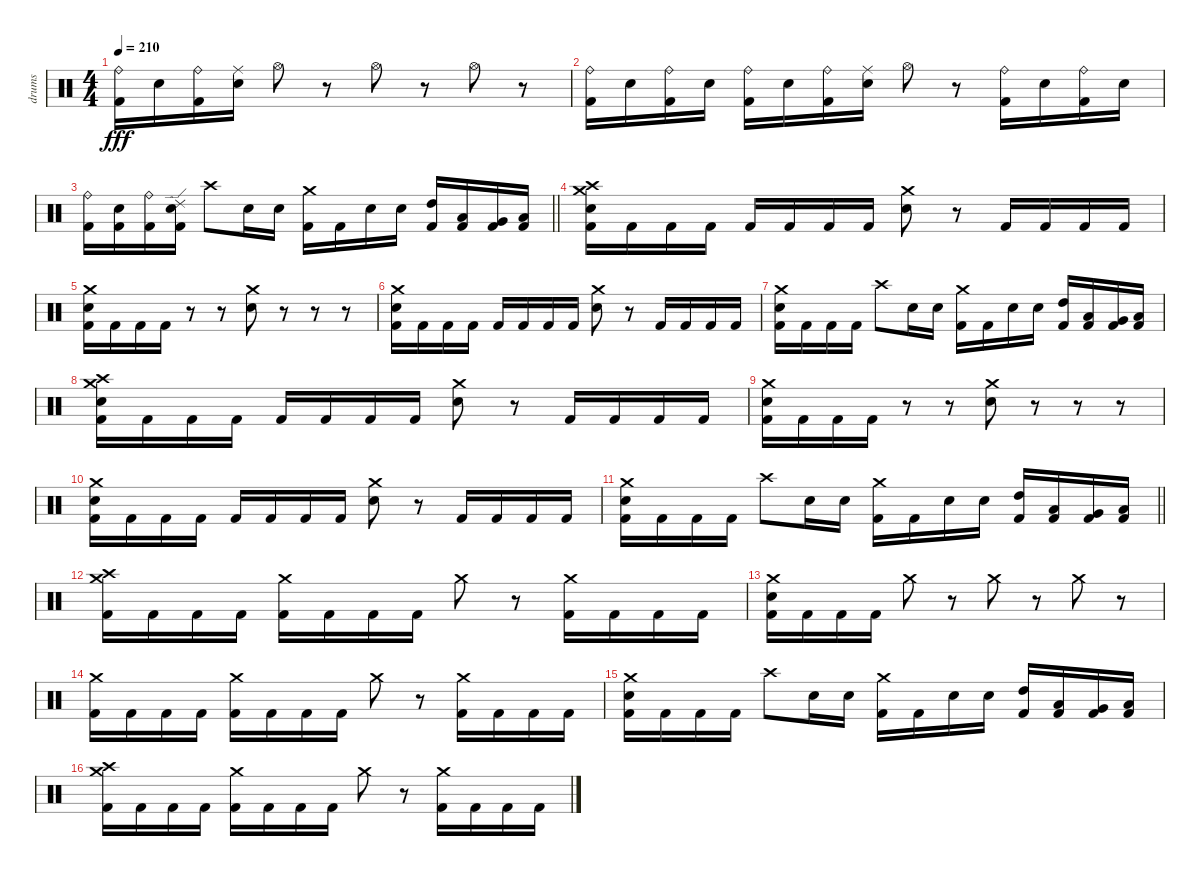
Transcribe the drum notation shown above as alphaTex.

\track ("drums" "drums") {instrument percussion}
\staff {score}
\articulation defaults
\ts (4 4)
\tempo 210
\clef neutral
\ks c
("Ride (bell)" "Kick (hit) 2").16{dy fff} "Electric Snare (hit)".16 ("Ride (bell)" "Kick (hit) 2").16 ("Ride (middle)" "Electric Snare (hit)").16 "Hi-Hat (open)".8 r.8 "Hi-Hat (open)".8 r.8 "Hi-Hat (open)".8 r.8 |
("Ride (bell)" "Kick (hit) 2").16 "Electric Snare (hit)".16 ("Ride (bell)" "Kick (hit) 2").16 "Electric Snare (hit)".16 ("Ride (bell)" "Kick (hit) 2").16 "Electric Snare (hit)".16 ("Ride (bell)" "Kick (hit) 2").16 ("Ride (middle)" "Electric Snare (hit)").16 "Hi-Hat (open)".8 r.8 ("Ride (bell)" "Kick (hit) 2").16 "Electric Snare (hit)".16 ("Ride (bell)" "Kick (hit) 2").16 "Electric Snare (hit)".16 |
\barLineRight lightlight
("Ride (bell)" "Kick (hit) 2").16 ("Electric Snare (hit)" "Kick (hit) 2").16 ("Ride (bell)" "Kick (hit) 2").16 ("Ride (edge) 2" "Electric Snare (hit)" "Kick (hit) 2").16 "Crash high (hit)".8 "Electric Snare (hit)".16 "Electric Snare (hit)".16 ("Crash medium (hit)" "Kick (hit) 2").16 "Kick (hit) 2".16 "Electric Snare (hit)".16 "Electric Snare (hit)".16 ("High Tom (hit)" "Kick (hit) 2").16 ("Low Tom (hit)" "Kick (hit) 2").16 ("Very Low Tom (hit)" "Kick (hit) 2").16 ("Low Floor Tom (hit)" "Kick (hit) 2").16 |
\section ("" "")
("Crash medium (hit)" "Crash high (hit)" "Electric Snare (hit)" "Kick (hit) 2").16 "Kick (hit) 2".16 "Kick (hit) 2".16 "Kick (hit) 2".16 "Kick (hit) 2".16 "Kick (hit) 2".16 "Kick (hit) 2".16 "Kick (hit) 2".16 ("Crash medium (hit)" "Electric Snare (hit)").8 r.8 "Kick (hit) 2".16 "Kick (hit) 2".16 "Kick (hit) 2".16 "Kick (hit) 2".16 |
("Crash medium (hit)" "Electric Snare (hit)" "Kick (hit) 2").16 "Kick (hit) 2".16 "Kick (hit) 2".16 "Kick (hit) 2".16 r.8 r.8 ("Crash medium (hit)" "Electric Snare (hit)").8 r.8 r.8 r.8 |
("Crash medium (hit)" "Electric Snare (hit)" "Kick (hit) 2").16 "Kick (hit) 2".16 "Kick (hit) 2".16 "Kick (hit) 2".16 "Kick (hit) 2".16 "Kick (hit) 2".16 "Kick (hit) 2".16 "Kick (hit) 2".16 ("Crash medium (hit)" "Electric Snare (hit)").8 r.8 "Kick (hit) 2".16 "Kick (hit) 2".16 "Kick (hit) 2".16 "Kick (hit) 2".16 |
("Crash medium (hit)" "Electric Snare (hit)" "Kick (hit) 2").16 "Kick (hit) 2".16 "Kick (hit) 2".16 "Kick (hit) 2".16 "Crash high (hit)".8 "Electric Snare (hit)".16 "Electric Snare (hit)".16 ("Crash medium (hit)" "Kick (hit) 2").16 "Kick (hit) 2".16 "Electric Snare (hit)".16 "Electric Snare (hit)".16 ("High Tom (hit)" "Kick (hit) 2").16 ("Low Tom (hit)" "Kick (hit) 2").16 ("Very Low Tom (hit)" "Kick (hit) 2").16 ("Low Floor Tom (hit)" "Kick (hit) 2").16 |
("Crash medium (hit)" "Crash high (hit)" "Electric Snare (hit)" "Kick (hit) 2").16 "Kick (hit) 2".16 "Kick (hit) 2".16 "Kick (hit) 2".16 "Kick (hit) 2".16 "Kick (hit) 2".16 "Kick (hit) 2".16 "Kick (hit) 2".16 ("Crash medium (hit)" "Electric Snare (hit)").8 r.8 "Kick (hit) 2".16 "Kick (hit) 2".16 "Kick (hit) 2".16 "Kick (hit) 2".16 |
("Crash medium (hit)" "Electric Snare (hit)" "Kick (hit) 2").16 "Kick (hit) 2".16 "Kick (hit) 2".16 "Kick (hit) 2".16 r.8 r.8 ("Crash medium (hit)" "Electric Snare (hit)").8 r.8 r.8 r.8 |
("Crash medium (hit)" "Electric Snare (hit)" "Kick (hit) 2").16 "Kick (hit) 2".16 "Kick (hit) 2".16 "Kick (hit) 2".16 "Kick (hit) 2".16 "Kick (hit) 2".16 "Kick (hit) 2".16 "Kick (hit) 2".16 ("Crash medium (hit)" "Electric Snare (hit)").8 r.8 "Kick (hit) 2".16 "Kick (hit) 2".16 "Kick (hit) 2".16 "Kick (hit) 2".16 |
\barLineRight lightlight
("Crash medium (hit)" "Electric Snare (hit)" "Kick (hit) 2").16 "Kick (hit) 2".16 "Kick (hit) 2".16 "Kick (hit) 2".16 "Crash high (hit)".8 "Electric Snare (hit)".16 "Electric Snare (hit)".16 ("Crash medium (hit)" "Kick (hit) 2").16 "Kick (hit) 2".16 "Electric Snare (hit)".16 "Electric Snare (hit)".16 ("High Tom (hit)" "Kick (hit) 2").16 ("Low Tom (hit)" "Kick (hit) 2").16 ("Very Low Tom (hit)" "Kick (hit) 2").16 ("Low Floor Tom (hit)" "Kick (hit) 2").16 |
\section ("" "")
("Crash medium (hit)" "Crash high (hit)" "Kick (hit) 2").16 "Kick (hit) 2".16 "Kick (hit) 2".16 "Kick (hit) 2".16 ("Crash medium (hit)" "Kick (hit) 2").16 "Kick (hit) 2".16 "Kick (hit) 2".16 "Kick (hit) 2".16 "Crash medium (hit)".8 r.8 ("Crash medium (hit)" "Kick (hit) 2").16 "Kick (hit) 2".16 "Kick (hit) 2".16 "Kick (hit) 2".16 |
("Crash medium (hit)" "Electric Snare (hit)" "Kick (hit) 2").16 "Kick (hit) 2".16 "Kick (hit) 2".16 "Kick (hit) 2".16 "Crash medium (hit)".8 r.8 "Crash medium (hit)".8 r.8 "Crash medium (hit)".8 r.8 |
("Crash medium (hit)" "Kick (hit) 2").16 "Kick (hit) 2".16 "Kick (hit) 2".16 "Kick (hit) 2".16 ("Crash medium (hit)" "Kick (hit) 2").16 "Kick (hit) 2".16 "Kick (hit) 2".16 "Kick (hit) 2".16 "Crash medium (hit)".8 r.8 ("Crash medium (hit)" "Kick (hit) 2").16 "Kick (hit) 2".16 "Kick (hit) 2".16 "Kick (hit) 2".16 |
("Crash medium (hit)" "Electric Snare (hit)" "Kick (hit) 2").16 "Kick (hit) 2".16 "Kick (hit) 2".16 "Kick (hit) 2".16 "Crash high (hit)".8 "Electric Snare (hit)".16 "Electric Snare (hit)".16 ("Crash medium (hit)" "Kick (hit) 2").16 "Kick (hit) 2".16 "Electric Snare (hit)".16 "Electric Snare (hit)".16 ("High Tom (hit)" "Kick (hit) 2").16 ("Low Tom (hit)" "Kick (hit) 2").16 ("Very Low Tom (hit)" "Kick (hit) 2").16 ("Low Floor Tom (hit)" "Kick (hit) 2").16 |
("Crash medium (hit)" "Crash high (hit)" "Kick (hit) 2").16 "Kick (hit) 2".16 "Kick (hit) 2".16 "Kick (hit) 2".16 ("Crash medium (hit)" "Kick (hit) 2").16 "Kick (hit) 2".16 "Kick (hit) 2".16 "Kick (hit) 2".16 "Crash medium (hit)".8 r.8 ("Crash medium (hit)" "Kick (hit) 2").16 "Kick (hit) 2".16 "Kick (hit) 2".16 "Kick (hit) 2".16
